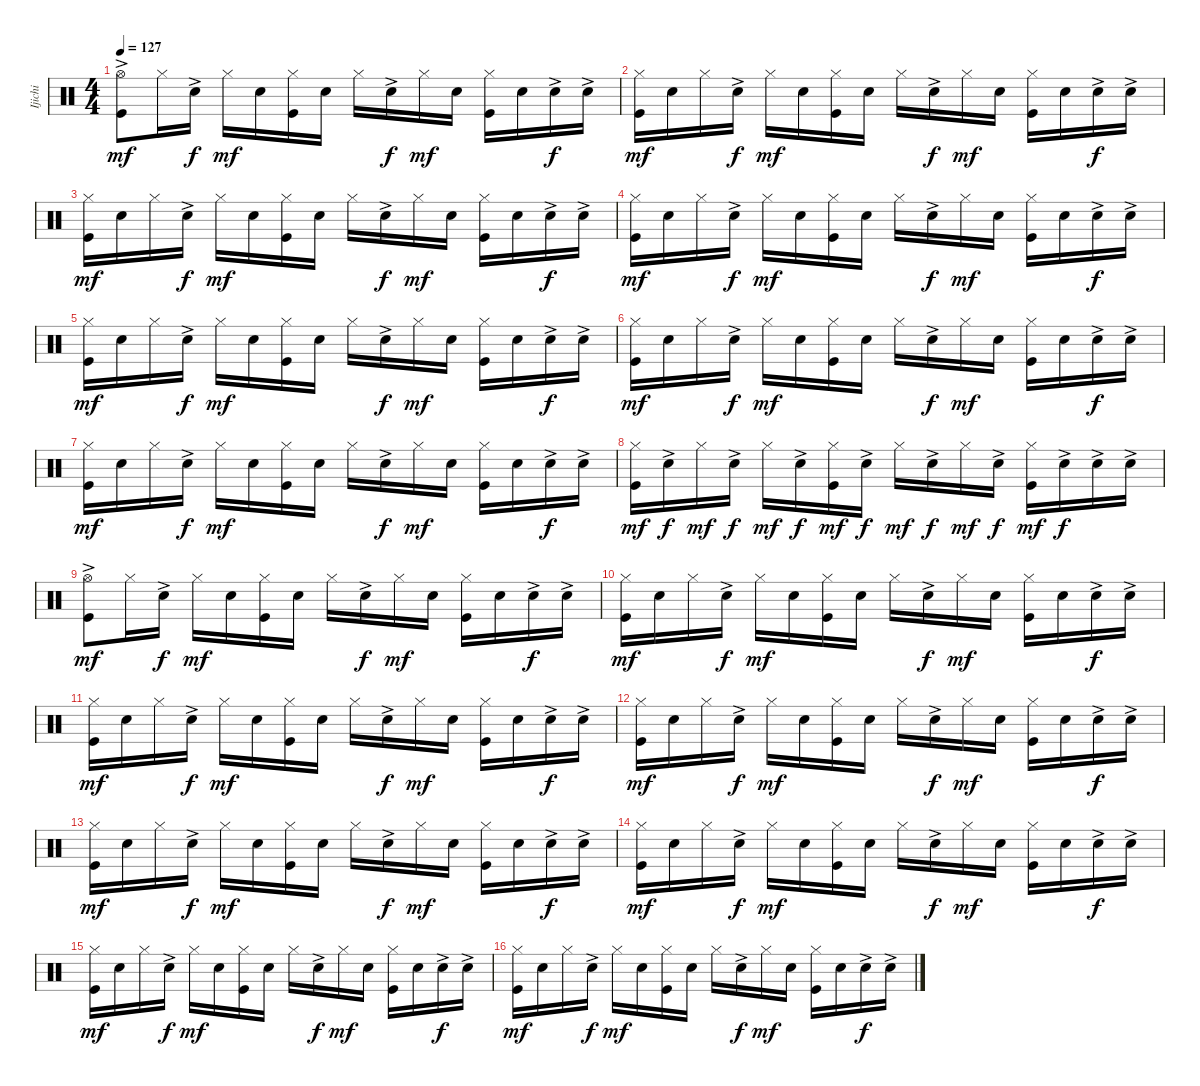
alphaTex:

\track ("Ijichi" "Ijichi") {instrument percussion}
\staff {score}
\articulation defaults
\ts (4 4)
\tempo 127
\clef neutral
\ks c
("Hi-Hat (open)"{ac} "Kick (hit)").8{dy mf} "Hi-Hat (closed)".16 "Electric Snare (hit)"{ac}.16{dy f} "Hi-Hat (closed)".16{dy mf} "Electric Snare (hit)".16 ("Hi-Hat (closed)" "Kick (hit)").16 "Electric Snare (hit)".16 "Hi-Hat (closed)".16 "Electric Snare (hit)"{ac}.16{dy f} "Hi-Hat (closed)".16{dy mf} "Electric Snare (hit)".16 ("Hi-Hat (closed)" "Kick (hit)").16 "Electric Snare (hit)".16 "Electric Snare (hit)"{ac}.16{dy f} "Electric Snare (hit)"{ac}.16 |
("Hi-Hat (closed)" "Kick (hit)").16{dy mf} "Electric Snare (hit)".16 "Hi-Hat (closed)".16 "Electric Snare (hit)"{ac}.16{dy f} "Hi-Hat (closed)".16{dy mf} "Electric Snare (hit)".16 ("Hi-Hat (closed)" "Kick (hit)").16 "Electric Snare (hit)".16 "Hi-Hat (closed)".16 "Electric Snare (hit)"{ac}.16{dy f} "Hi-Hat (closed)".16{dy mf} "Electric Snare (hit)".16 ("Hi-Hat (closed)" "Kick (hit)").16 "Electric Snare (hit)".16 "Electric Snare (hit)"{ac}.16{dy f} "Electric Snare (hit)"{ac}.16 |
("Hi-Hat (closed)" "Kick (hit)").16{dy mf} "Electric Snare (hit)".16 "Hi-Hat (closed)".16 "Electric Snare (hit)"{ac}.16{dy f} "Hi-Hat (closed)".16{dy mf} "Electric Snare (hit)".16 ("Hi-Hat (closed)" "Kick (hit)").16 "Electric Snare (hit)".16 "Hi-Hat (closed)".16 "Electric Snare (hit)"{ac}.16{dy f} "Hi-Hat (closed)".16{dy mf} "Electric Snare (hit)".16 ("Hi-Hat (closed)" "Kick (hit)").16 "Electric Snare (hit)".16 "Electric Snare (hit)"{ac}.16{dy f} "Electric Snare (hit)"{ac}.16 |
("Hi-Hat (closed)" "Kick (hit)").16{dy mf} "Electric Snare (hit)".16 "Hi-Hat (closed)".16 "Electric Snare (hit)"{ac}.16{dy f} "Hi-Hat (closed)".16{dy mf} "Electric Snare (hit)".16 ("Hi-Hat (closed)" "Kick (hit)").16 "Electric Snare (hit)".16 "Hi-Hat (closed)".16 "Electric Snare (hit)"{ac}.16{dy f} "Hi-Hat (closed)".16{dy mf} "Electric Snare (hit)".16 ("Hi-Hat (closed)" "Kick (hit)").16 "Electric Snare (hit)".16 "Electric Snare (hit)"{ac}.16{dy f} "Electric Snare (hit)"{ac}.16 |
("Hi-Hat (closed)" "Kick (hit)").16{dy mf} "Electric Snare (hit)".16 "Hi-Hat (closed)".16 "Electric Snare (hit)"{ac}.16{dy f} "Hi-Hat (closed)".16{dy mf} "Electric Snare (hit)".16 ("Hi-Hat (closed)" "Kick (hit)").16 "Electric Snare (hit)".16 "Hi-Hat (closed)".16 "Electric Snare (hit)"{ac}.16{dy f} "Hi-Hat (closed)".16{dy mf} "Electric Snare (hit)".16 ("Hi-Hat (closed)" "Kick (hit)").16 "Electric Snare (hit)".16 "Electric Snare (hit)"{ac}.16{dy f} "Electric Snare (hit)"{ac}.16 |
("Hi-Hat (closed)" "Kick (hit)").16{dy mf} "Electric Snare (hit)".16 "Hi-Hat (closed)".16 "Electric Snare (hit)"{ac}.16{dy f} "Hi-Hat (closed)".16{dy mf} "Electric Snare (hit)".16 ("Hi-Hat (closed)" "Kick (hit)").16 "Electric Snare (hit)".16 "Hi-Hat (closed)".16 "Electric Snare (hit)"{ac}.16{dy f} "Hi-Hat (closed)".16{dy mf} "Electric Snare (hit)".16 ("Hi-Hat (closed)" "Kick (hit)").16 "Electric Snare (hit)".16 "Electric Snare (hit)"{ac}.16{dy f} "Electric Snare (hit)"{ac}.16 |
("Hi-Hat (closed)" "Kick (hit)").16{dy mf} "Electric Snare (hit)".16 "Hi-Hat (closed)".16 "Electric Snare (hit)"{ac}.16{dy f} "Hi-Hat (closed)".16{dy mf} "Electric Snare (hit)".16 ("Hi-Hat (closed)" "Kick (hit)").16 "Electric Snare (hit)".16 "Hi-Hat (closed)".16 "Electric Snare (hit)"{ac}.16{dy f} "Hi-Hat (closed)".16{dy mf} "Electric Snare (hit)".16 ("Hi-Hat (closed)" "Kick (hit)").16 "Electric Snare (hit)".16 "Electric Snare (hit)"{ac}.16{dy f} "Electric Snare (hit)"{ac}.16 |
("Hi-Hat (closed)" "Kick (hit)").16{dy mf} "Electric Snare (hit)"{ac}.16{dy f} "Hi-Hat (closed)".16{dy mf} "Electric Snare (hit)"{ac}.16{dy f} "Hi-Hat (closed)".16{dy mf} "Electric Snare (hit)"{ac}.16{dy f} ("Hi-Hat (closed)" "Kick (hit)").16{dy mf} "Electric Snare (hit)"{ac}.16{dy f} "Hi-Hat (closed)".16{dy mf} "Electric Snare (hit)"{ac}.16{dy f} "Hi-Hat (closed)".16{dy mf} "Electric Snare (hit)"{ac}.16{dy f} ("Hi-Hat (closed)" "Kick (hit)").16{dy mf} "Electric Snare (hit)"{ac}.16{dy f} "Electric Snare (hit)"{ac}.16 "Electric Snare (hit)"{ac}.16 |
("Hi-Hat (open)"{ac} "Kick (hit)").8{dy mf} "Hi-Hat (closed)".16 "Electric Snare (hit)"{ac}.16{dy f} "Hi-Hat (closed)".16{dy mf} "Electric Snare (hit)".16 ("Hi-Hat (closed)" "Kick (hit)").16 "Electric Snare (hit)".16 "Hi-Hat (closed)".16 "Electric Snare (hit)"{ac}.16{dy f} "Hi-Hat (closed)".16{dy mf} "Electric Snare (hit)".16 ("Hi-Hat (closed)" "Kick (hit)").16 "Electric Snare (hit)".16 "Electric Snare (hit)"{ac}.16{dy f} "Electric Snare (hit)"{ac}.16 |
("Hi-Hat (closed)" "Kick (hit)").16{dy mf} "Electric Snare (hit)".16 "Hi-Hat (closed)".16 "Electric Snare (hit)"{ac}.16{dy f} "Hi-Hat (closed)".16{dy mf} "Electric Snare (hit)".16 ("Hi-Hat (closed)" "Kick (hit)").16 "Electric Snare (hit)".16 "Hi-Hat (closed)".16 "Electric Snare (hit)"{ac}.16{dy f} "Hi-Hat (closed)".16{dy mf} "Electric Snare (hit)".16 ("Hi-Hat (closed)" "Kick (hit)").16 "Electric Snare (hit)".16 "Electric Snare (hit)"{ac}.16{dy f} "Electric Snare (hit)"{ac}.16 |
("Hi-Hat (closed)" "Kick (hit)").16{dy mf} "Electric Snare (hit)".16 "Hi-Hat (closed)".16 "Electric Snare (hit)"{ac}.16{dy f} "Hi-Hat (closed)".16{dy mf} "Electric Snare (hit)".16 ("Hi-Hat (closed)" "Kick (hit)").16 "Electric Snare (hit)".16 "Hi-Hat (closed)".16 "Electric Snare (hit)"{ac}.16{dy f} "Hi-Hat (closed)".16{dy mf} "Electric Snare (hit)".16 ("Hi-Hat (closed)" "Kick (hit)").16 "Electric Snare (hit)".16 "Electric Snare (hit)"{ac}.16{dy f} "Electric Snare (hit)"{ac}.16 |
("Hi-Hat (closed)" "Kick (hit)").16{dy mf} "Electric Snare (hit)".16 "Hi-Hat (closed)".16 "Electric Snare (hit)"{ac}.16{dy f} "Hi-Hat (closed)".16{dy mf} "Electric Snare (hit)".16 ("Hi-Hat (closed)" "Kick (hit)").16 "Electric Snare (hit)".16 "Hi-Hat (closed)".16 "Electric Snare (hit)"{ac}.16{dy f} "Hi-Hat (closed)".16{dy mf} "Electric Snare (hit)".16 ("Hi-Hat (closed)" "Kick (hit)").16 "Electric Snare (hit)".16 "Electric Snare (hit)"{ac}.16{dy f} "Electric Snare (hit)"{ac}.16 |
("Hi-Hat (closed)" "Kick (hit)").16{dy mf} "Electric Snare (hit)".16 "Hi-Hat (closed)".16 "Electric Snare (hit)"{ac}.16{dy f} "Hi-Hat (closed)".16{dy mf} "Electric Snare (hit)".16 ("Hi-Hat (closed)" "Kick (hit)").16 "Electric Snare (hit)".16 "Hi-Hat (closed)".16 "Electric Snare (hit)"{ac}.16{dy f} "Hi-Hat (closed)".16{dy mf} "Electric Snare (hit)".16 ("Hi-Hat (closed)" "Kick (hit)").16 "Electric Snare (hit)".16 "Electric Snare (hit)"{ac}.16{dy f} "Electric Snare (hit)"{ac}.16 |
("Hi-Hat (closed)" "Kick (hit)").16{dy mf} "Electric Snare (hit)".16 "Hi-Hat (closed)".16 "Electric Snare (hit)"{ac}.16{dy f} "Hi-Hat (closed)".16{dy mf} "Electric Snare (hit)".16 ("Hi-Hat (closed)" "Kick (hit)").16 "Electric Snare (hit)".16 "Hi-Hat (closed)".16 "Electric Snare (hit)"{ac}.16{dy f} "Hi-Hat (closed)".16{dy mf} "Electric Snare (hit)".16 ("Hi-Hat (closed)" "Kick (hit)").16 "Electric Snare (hit)".16 "Electric Snare (hit)"{ac}.16{dy f} "Electric Snare (hit)"{ac}.16 |
("Hi-Hat (closed)" "Kick (hit)").16{dy mf} "Electric Snare (hit)".16 "Hi-Hat (closed)".16 "Electric Snare (hit)"{ac}.16{dy f} "Hi-Hat (closed)".16{dy mf} "Electric Snare (hit)".16 ("Hi-Hat (closed)" "Kick (hit)").16 "Electric Snare (hit)".16 "Hi-Hat (closed)".16 "Electric Snare (hit)"{ac}.16{dy f} "Hi-Hat (closed)".16{dy mf} "Electric Snare (hit)".16 ("Hi-Hat (closed)" "Kick (hit)").16 "Electric Snare (hit)".16 "Electric Snare (hit)"{ac}.16{dy f} "Electric Snare (hit)"{ac}.16 |
("Hi-Hat (closed)" "Kick (hit)").16{dy mf} "Electric Snare (hit)".16 "Hi-Hat (closed)".16 "Electric Snare (hit)"{ac}.16{dy f} "Hi-Hat (closed)".16{dy mf} "Electric Snare (hit)".16 ("Hi-Hat (closed)" "Kick (hit)").16 "Electric Snare (hit)".16 "Hi-Hat (closed)".16 "Electric Snare (hit)"{ac}.16{dy f} "Hi-Hat (closed)".16{dy mf} "Electric Snare (hit)".16 ("Hi-Hat (closed)" "Kick (hit)").16 "Electric Snare (hit)".16 "Electric Snare (hit)"{ac}.16{dy f} "Electric Snare (hit)"{ac}.16
